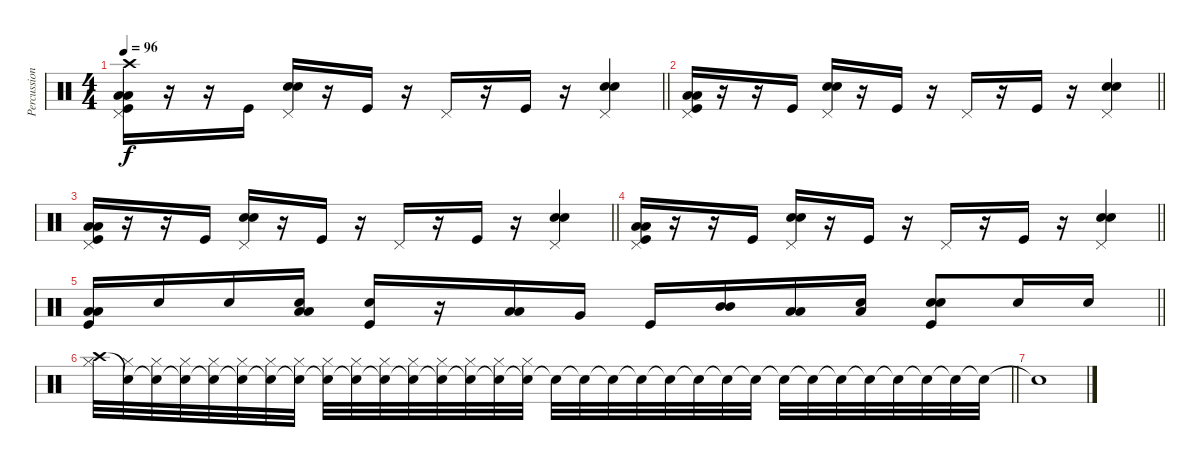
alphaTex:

\track ("Percussioni" "Percussion") {instrument percussion}
\staff {score}
\articulation defaults
\ts (4 4)
\tempo 96
\clef neutral
\barLineRight lightlight
\ks c
("Crash high (hit)" "Low Tom (hit)" "Low Tom (hit)" "Kick (hit)" "Pedal Hi-Hat (hit)").16{dy f} r.16 r.16 "Kick (hit)".16 ("Snare (hit) 2" "Snare (hit) 2" "Pedal Hi-Hat (hit)").16 r.16 "Kick (hit)".16 r.16 "Pedal Hi-Hat (hit)".16 r.16 "Kick (hit)".16 r.16 ("Snare (hit) 2" "Snare (hit) 2" "Pedal Hi-Hat (hit)").4 |
\barLineRight lightlight
("Low Tom (hit)" "Low Tom (hit)" "Kick (hit)" "Pedal Hi-Hat (hit)").16 r.16 r.16 "Kick (hit)".16 ("Snare (hit) 2" "Snare (hit) 2" "Pedal Hi-Hat (hit)").16 r.16 "Kick (hit)".16 r.16 "Pedal Hi-Hat (hit)".16 r.16 "Kick (hit)".16 r.16 ("Snare (hit) 2" "Snare (hit) 2" "Pedal Hi-Hat (hit)").4 |
\barLineRight lightlight
("Low Tom (hit)" "Low Tom (hit)" "Kick (hit)" "Pedal Hi-Hat (hit)").16 r.16 r.16 "Kick (hit)".16 ("Snare (hit) 2" "Snare (hit) 2" "Pedal Hi-Hat (hit)").16 r.16 "Kick (hit)".16 r.16 "Pedal Hi-Hat (hit)".16 r.16 "Kick (hit)".16 r.16 ("Snare (hit) 2" "Snare (hit) 2" "Pedal Hi-Hat (hit)").4 |
\barLineRight lightlight
("Low Tom (hit)" "Low Tom (hit)" "Kick (hit)" "Pedal Hi-Hat (hit)").16 r.16 r.16 "Kick (hit)".16 ("Snare (hit) 2" "Snare (hit) 2" "Pedal Hi-Hat (hit)").16 r.16 "Kick (hit)".16 r.16 "Pedal Hi-Hat (hit)".16 r.16 "Kick (hit)".16 r.16 ("Snare (hit) 2" "Snare (hit) 2" "Pedal Hi-Hat (hit)").4 |
\barLineRight lightlight
("Low Tom (hit)" "Low Tom (hit)" "Kick (hit)").16 "Snare (hit) 2".16 "Snare (hit) 2".16 ("Low Tom (hit)" "Low Tom (hit)" "Snare (hit) 2").16 ("Snare (hit) 2" "Kick (hit)").16 r.16 ("Low Tom (hit)" "Low Tom (hit)").16 "Very Low Tom (hit)".16 "Kick (hit)".16 ("Mid Tom (hit)" "Mid Tom (hit)").16 ("Low Tom (hit)" "Low Tom (hit)").16 ("Low Tom (hit)" "Snare (hit) 2").16 ("Snare (hit) 2" "Snare (hit) 2" "Kick (hit)").8 "Snare (hit) 2".16 "Snare (hit) 2".16 |
\barLineRight lightlight
("Crash high (hit)" "Hi-Hat (closed)").32{volume 3} ("Snare (hit)"{t} "Hi-Hat (closed)").32 ("Snare (hit)"{t} "Hi-Hat (closed)").32 ("Snare (hit)"{t} "Hi-Hat (closed)").32 ("Snare (hit)"{t} "Hi-Hat (closed)").32 ("Snare (hit)"{t} "Hi-Hat (closed)").32 ("Snare (hit)"{t} "Hi-Hat (closed)").32 ("Snare (hit)"{t} "Hi-Hat (closed)").32 ("Snare (hit)"{t} "Hi-Hat (closed)").32{volume 4} ("Snare (hit)"{t} "Hi-Hat (closed)").32 ("Snare (hit)"{t} "Hi-Hat (closed)").32 ("Snare (hit)"{t} "Hi-Hat (closed)").32 ("Snare (hit)"{t} "Hi-Hat (closed)").32 ("Snare (hit)"{t} "Hi-Hat (closed)").32 ("Snare (hit)"{t} "Hi-Hat (closed)").32 ("Snare (hit)"{t} "Hi-Hat (closed)").32 "Snare (hit)"{t}.32{volume 5} "Snare (hit)"{t}.32 "Snare (hit)"{t}.32 "Snare (hit)"{t}.32 "Snare (hit)"{t}.32 "Snare (hit)"{t}.32 "Snare (hit)"{t}.32 "Snare (hit)"{t}.32 "Snare (hit)"{t}.32 "Snare (hit)"{t}.32 "Snare (hit)"{t}.32 "Snare (hit)"{t}.32 "Snare (hit)"{t}.32 "Snare (hit)"{t}.32 "Snare (hit)"{t}.32 "Snare (hit)"{t}.32 |
"Snare (hit)"{t}.1
